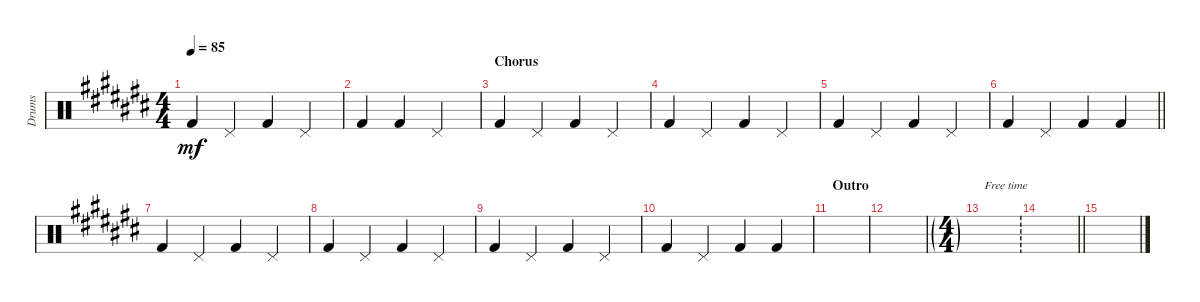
\bracketExtendMode groupsimilarinstruments
\otherSystemsTrackNameOrientation horizontal
\track ("Drumkit" "Drums") {instrument percussion}
\staff {score}
\articulation defaults
\ts (4 4)
\scale
1.05899
\tempo 85
\accidentals auto
\clef neutral
\ottava regular
\simile none
\scale
0.333333
\ks c# "Kick (hit) 2"{acc forcenatural}.4{dy mf beam Up} "Pedal Hi-Hat (hit)"{acc forcenatural}.4{beam Up} "Kick (hit) 2"{acc forcenatural}.4{beam Up} "Pedal Hi-Hat (hit)"{acc forcenatural}.4{beam Up}
|
\scale
0.977525
\scale
0.333333 "Kick (hit) 2"{acc forcenatural}.4{beam Up} "Kick (hit) 2"{acc forcenatural}.4{beam Up} "Pedal Hi-Hat (hit)"{acc forcenatural}.2{beam Up} |
\section ("" "Chorus")
\scale
0.963488
\scale
0.333333 "Kick (hit) 2"{acc forcenatural}.4{beam Up} "Pedal Hi-Hat (hit)"{acc forcenatural}.4{beam Up} "Kick (hit) 2"{acc forcenatural}.4{beam Up} "Pedal Hi-Hat (hit)"{acc forcenatural}.4{beam Up} |
\scale
1.04228
\scale
0.333333 "Kick (hit) 2"{acc forcenatural}.4{beam Up} "Pedal Hi-Hat (hit)"{acc forcenatural}.4{beam Up} "Kick (hit) 2"{acc forcenatural}.4{beam Up} "Pedal Hi-Hat (hit)"{acc forcenatural}.4{beam Up} |
\scale
0.971843
\scale
0.333333 "Kick (hit) 2"{acc forcenatural}.4{beam Up} "Pedal Hi-Hat (hit)"{acc forcenatural}.4{beam Up} "Kick (hit) 2"{acc forcenatural}.4{beam Up} "Pedal Hi-Hat (hit)"{acc forcenatural}.4{beam Up} |
\scale
0.98588
\scale
0.333333
\barLineRight lightlight "Kick (hit) 2"{acc forcenatural}.4{beam Up} "Pedal Hi-Hat (hit)"{acc forcenatural}.4{beam Up} "Kick (hit) 2"{acc forcenatural}.4{beam Up} "Kick (hit) 2"{acc forcenatural}.4{beam Up}
|
\scale
1.07202 "Kick (hit) 2"{acc forcenatural}.4{beam Up} "Pedal Hi-Hat (hit)"{acc forcenatural}.4{beam Up} "Kick (hit) 2"{acc forcenatural}.4{beam Up} "Pedal Hi-Hat (hit)"{acc forcenatural}.4{beam Up} |
\scale
0.951457
\scale
0.333333 "Kick (hit) 2"{acc forcenatural}.4{beam Up} "Pedal Hi-Hat (hit)"{acc forcenatural}.4{beam Up} "Kick (hit) 2"{acc forcenatural}.4{beam Up} "Pedal Hi-Hat (hit)"{acc forcenatural}.4{beam Up} |
\scale
0.976522 "Kick (hit) 2"{acc forcenatural}.4{beam Up} "Pedal Hi-Hat (hit)"{acc forcenatural}.4{beam Up} "Kick (hit) 2"{acc forcenatural}.4{beam Up} "Pedal Hi-Hat (hit)"{acc forcenatural}.4{beam Up} |
\scale
1.08138
\scale
0.333333 "Kick (hit) 2"{acc forcenatural}.4{beam Up} "Pedal Hi-Hat (hit)"{acc forcenatural}.4{beam Up} "Kick (hit) 2"{acc forcenatural}.4{beam Up} "Kick (hit) 2"{acc forcenatural}.4{beam Up} |
\section ("" "Outro")
\scale
0.971843
\scale
0.333333 |
\scale
0.946778
\scale
0.333333 |
\ft
\scale
1.17055 |
\ft
\scale
0.908564
\barLineRight lightlight
|
\ft
\scale
0.920884
